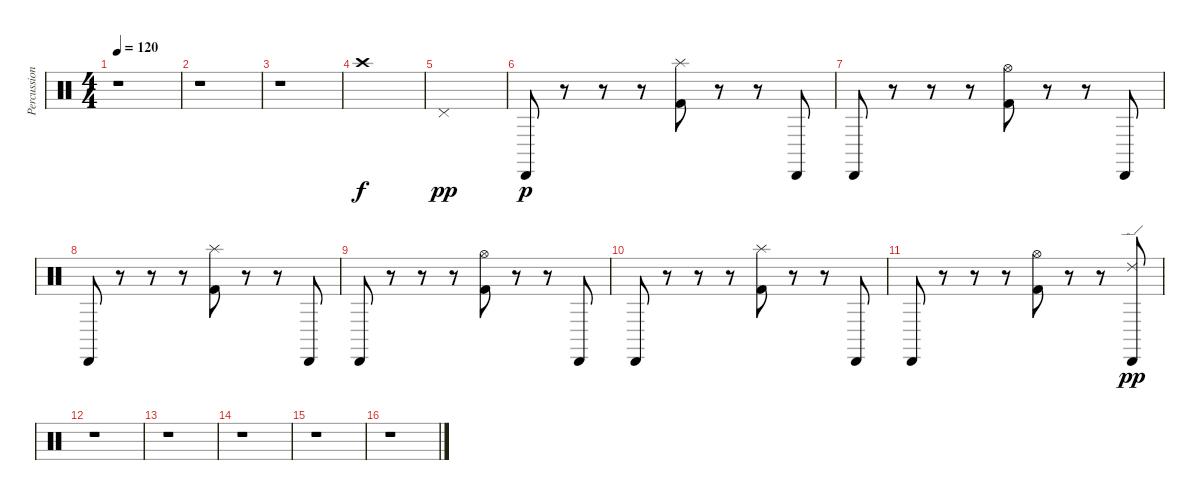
\track ("Percussions" "Percussion") {instrument percussion}
\staff {score}
\articulation defaults
\ts (4 4)
\tempo 120
\clef neutral
\ks c
r.1{dy f} |
r.1 |
r.1 |
"Crash high (hit)".1 |
"Pedal Hi-Hat (hit)".1{dy pp} |
"Cabasa (hit)".8{dy p} r.8 r.8 r.8 ("Splash (hit)" "Kick (hit) 2").8 r.8 r.8 "Cabasa (hit)".8 |
"Cabasa (hit)".8 r.8 r.8 r.8 ("Hi-Hat (open)" "Kick (hit) 2").8 r.8 r.8 "Cabasa (hit)".8 |
"Cabasa (hit)".8 r.8 r.8 r.8 ("Splash (hit)" "Kick (hit) 2").8 r.8 r.8 "Cabasa (hit)".8 |
"Cabasa (hit)".8 r.8 r.8 r.8 ("Hi-Hat (open)" "Kick (hit) 2").8 r.8 r.8 "Cabasa (hit)".8 |
"Cabasa (hit)".8 r.8 r.8 r.8 ("Splash (hit)" "Kick (hit) 2").8 r.8 r.8 "Cabasa (hit)".8 |
"Cabasa (hit)".8 r.8 r.8 r.8 ("Hi-Hat (open)" "Kick (hit) 2").8 r.8 r.8 ("Cabasa (hit)" "Ride (edge) 2").8{dy pp} |
r.1 |
r.1 |
r.1 |
r.1 |
r.1
